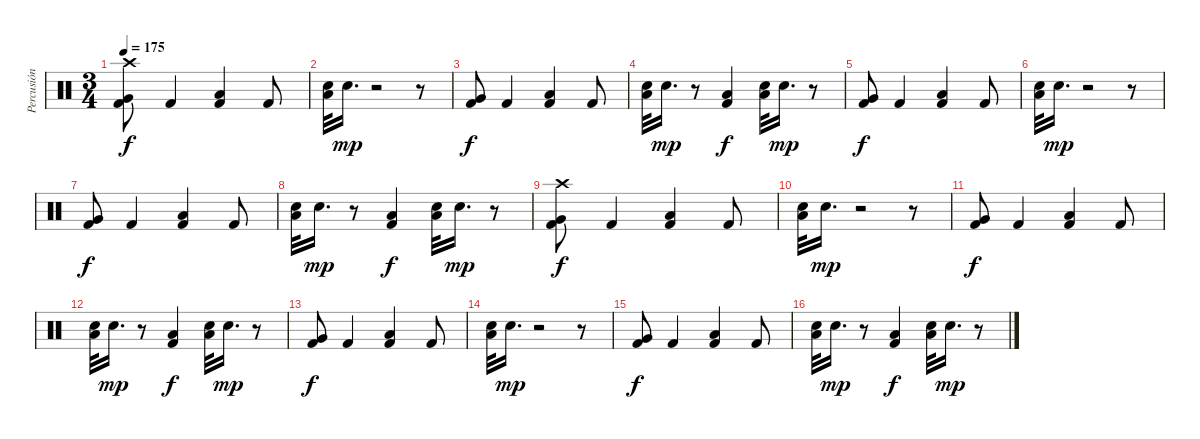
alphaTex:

\track ("Percusión" "Percusión") {instrument percussion}
\staff {score}
\articulation defaults
\ts (3 4)
\tempo 175
\clef neutral
\ks c
("Crash high (hit)" "Very Low Tom (hit)" "Kick (hit) 2").8{dy f} "Kick (hit) 2".4 ("Low Tom (hit)" "Kick (hit) 2").4 "Kick (hit) 2".8 |
("Low Floor Tom (hit)" "Snare (hit) 2").32 "Snare (hit) 2".16{d dy mp} r.2 r.8 |
("Very Low Tom (hit)" "Kick (hit) 2").8{dy f} "Kick (hit) 2".4 ("Low Tom (hit)" "Kick (hit) 2").4 "Kick (hit) 2".8 |
("Low Floor Tom (hit)" "Snare (hit) 2").32 "Snare (hit) 2".16{d dy mp} r.8 ("Low Tom (hit)" "Kick (hit) 2").4{dy f} ("Low Floor Tom (hit)" "Snare (hit) 2").32 "Snare (hit) 2".16{d dy mp} r.8 |
("Very Low Tom (hit)" "Kick (hit) 2").8{dy f} "Kick (hit) 2".4 ("Low Tom (hit)" "Kick (hit) 2").4 "Kick (hit) 2".8 |
("Low Floor Tom (hit)" "Snare (hit) 2").32 "Snare (hit) 2".16{d dy mp} r.2 r.8 |
("Very Low Tom (hit)" "Kick (hit) 2").8{dy f} "Kick (hit) 2".4 ("Low Tom (hit)" "Kick (hit) 2").4 "Kick (hit) 2".8 |
("Low Floor Tom (hit)" "Snare (hit) 2").32 "Snare (hit) 2".16{d dy mp} r.8 ("Low Tom (hit)" "Kick (hit) 2").4{dy f} ("Low Floor Tom (hit)" "Snare (hit) 2").32 "Snare (hit) 2".16{d dy mp} r.8 |
("Crash high (hit)" "Very Low Tom (hit)" "Kick (hit) 2").8{dy f} "Kick (hit) 2".4 ("Low Tom (hit)" "Kick (hit) 2").4 "Kick (hit) 2".8 |
("Low Floor Tom (hit)" "Snare (hit) 2").32 "Snare (hit) 2".16{d dy mp} r.2 r.8 |
("Very Low Tom (hit)" "Kick (hit) 2").8{dy f} "Kick (hit) 2".4 ("Low Tom (hit)" "Kick (hit) 2").4 "Kick (hit) 2".8 |
("Low Floor Tom (hit)" "Snare (hit) 2").32 "Snare (hit) 2".16{d dy mp} r.8 ("Low Tom (hit)" "Kick (hit) 2").4{dy f} ("Low Floor Tom (hit)" "Snare (hit) 2").32 "Snare (hit) 2".16{d dy mp} r.8 |
("Very Low Tom (hit)" "Kick (hit) 2").8{dy f} "Kick (hit) 2".4 ("Low Tom (hit)" "Kick (hit) 2").4 "Kick (hit) 2".8 |
("Low Floor Tom (hit)" "Snare (hit) 2").32 "Snare (hit) 2".16{d dy mp} r.2 r.8 |
("Very Low Tom (hit)" "Kick (hit) 2").8{dy f} "Kick (hit) 2".4 ("Low Tom (hit)" "Kick (hit) 2").4 "Kick (hit) 2".8 |
("Low Floor Tom (hit)" "Snare (hit) 2").32 "Snare (hit) 2".16{d dy mp} r.8 ("Low Tom (hit)" "Kick (hit) 2").4{dy f} ("Low Floor Tom (hit)" "Snare (hit) 2").32 "Snare (hit) 2".16{d dy mp} r.8
